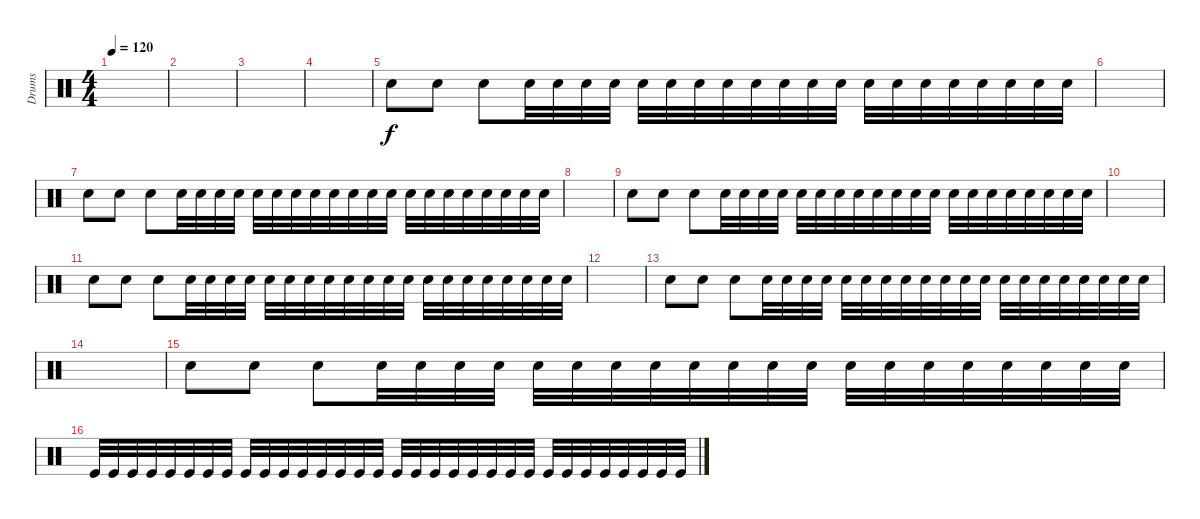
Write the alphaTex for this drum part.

\track ("Drums" "Drums") {instrument percussion}
\staff {score}
\articulation defaults
\ts (4 4)
\tempo 120
\clef neutral
\ks c
|
|
|
|
"Electric Snare (hit)".8 "Electric Snare (hit)".8 "Electric Snare (hit)".8 "Electric Snare (hit)".32 "Electric Snare (hit)".32 "Electric Snare (hit)".32 "Electric Snare (hit)".32 "Electric Snare (hit)".32 "Electric Snare (hit)".32 "Electric Snare (hit)".32 "Electric Snare (hit)".32 "Electric Snare (hit)".32 "Electric Snare (hit)".32 "Electric Snare (hit)".32 "Electric Snare (hit)".32 "Electric Snare (hit)".32 "Electric Snare (hit)".32 "Electric Snare (hit)".32 "Electric Snare (hit)".32 "Electric Snare (hit)".32 "Electric Snare (hit)".32 "Electric Snare (hit)".32 "Electric Snare (hit)".32 |
|
"Electric Snare (hit)".8 "Electric Snare (hit)".8 "Electric Snare (hit)".8 "Electric Snare (hit)".32 "Electric Snare (hit)".32 "Electric Snare (hit)".32 "Electric Snare (hit)".32 "Electric Snare (hit)".32 "Electric Snare (hit)".32 "Electric Snare (hit)".32 "Electric Snare (hit)".32 "Electric Snare (hit)".32 "Electric Snare (hit)".32 "Electric Snare (hit)".32 "Electric Snare (hit)".32 "Electric Snare (hit)".32 "Electric Snare (hit)".32 "Electric Snare (hit)".32 "Electric Snare (hit)".32 "Electric Snare (hit)".32 "Electric Snare (hit)".32 "Electric Snare (hit)".32 "Electric Snare (hit)".32 |
|
"Electric Snare (hit)".8 "Electric Snare (hit)".8 "Electric Snare (hit)".8 "Electric Snare (hit)".32 "Electric Snare (hit)".32 "Electric Snare (hit)".32 "Electric Snare (hit)".32 "Electric Snare (hit)".32 "Electric Snare (hit)".32 "Electric Snare (hit)".32 "Electric Snare (hit)".32 "Electric Snare (hit)".32 "Electric Snare (hit)".32 "Electric Snare (hit)".32 "Electric Snare (hit)".32 "Electric Snare (hit)".32 "Electric Snare (hit)".32 "Electric Snare (hit)".32 "Electric Snare (hit)".32 "Electric Snare (hit)".32 "Electric Snare (hit)".32 "Electric Snare (hit)".32 "Electric Snare (hit)".32 |
|
"Electric Snare (hit)".8 "Electric Snare (hit)".8 "Electric Snare (hit)".8 "Electric Snare (hit)".32 "Electric Snare (hit)".32 "Electric Snare (hit)".32 "Electric Snare (hit)".32 "Electric Snare (hit)".32 "Electric Snare (hit)".32 "Electric Snare (hit)".32 "Electric Snare (hit)".32 "Electric Snare (hit)".32 "Electric Snare (hit)".32 "Electric Snare (hit)".32 "Electric Snare (hit)".32 "Electric Snare (hit)".32 "Electric Snare (hit)".32 "Electric Snare (hit)".32 "Electric Snare (hit)".32 "Electric Snare (hit)".32 "Electric Snare (hit)".32 "Electric Snare (hit)".32 "Electric Snare (hit)".32 |
|
"Electric Snare (hit)".8 "Electric Snare (hit)".8 "Electric Snare (hit)".8 "Electric Snare (hit)".32 "Electric Snare (hit)".32 "Electric Snare (hit)".32 "Electric Snare (hit)".32 "Electric Snare (hit)".32 "Electric Snare (hit)".32 "Electric Snare (hit)".32 "Electric Snare (hit)".32 "Electric Snare (hit)".32 "Electric Snare (hit)".32 "Electric Snare (hit)".32 "Electric Snare (hit)".32 "Electric Snare (hit)".32 "Electric Snare (hit)".32 "Electric Snare (hit)".32 "Electric Snare (hit)".32 "Electric Snare (hit)".32 "Electric Snare (hit)".32 "Electric Snare (hit)".32 "Electric Snare (hit)".32 |
|
"Electric Snare (hit)".8 "Electric Snare (hit)".8 "Electric Snare (hit)".8 "Electric Snare (hit)".32 "Electric Snare (hit)".32 "Electric Snare (hit)".32 "Electric Snare (hit)".32 "Electric Snare (hit)".32 "Electric Snare (hit)".32 "Electric Snare (hit)".32 "Electric Snare (hit)".32 "Electric Snare (hit)".32 "Electric Snare (hit)".32 "Electric Snare (hit)".32 "Electric Snare (hit)".32 "Electric Snare (hit)".32 "Electric Snare (hit)".32 "Electric Snare (hit)".32 "Electric Snare (hit)".32 "Electric Snare (hit)".32 "Electric Snare (hit)".32 "Electric Snare (hit)".32 "Electric Snare (hit)".32 |
"Kick (hit)".32 "Kick (hit)".32 "Kick (hit)".32 "Kick (hit)".32 "Kick (hit)".32 "Kick (hit)".32 "Kick (hit)".32 "Kick (hit)".32 "Kick (hit)".32 "Kick (hit)".32 "Kick (hit)".32 "Kick (hit)".32 "Kick (hit)".32 "Kick (hit)".32 "Kick (hit)".32 "Kick (hit)".32 "Kick (hit)".32 "Kick (hit)".32 "Kick (hit)".32 "Kick (hit)".32 "Kick (hit)".32 "Kick (hit)".32 "Kick (hit)".32 "Kick (hit)".32 "Kick (hit)".32 "Kick (hit)".32 "Kick (hit)".32 "Kick (hit)".32 "Kick (hit)".32 "Kick (hit)".32 "Kick (hit)".32 "Kick (hit)".32
